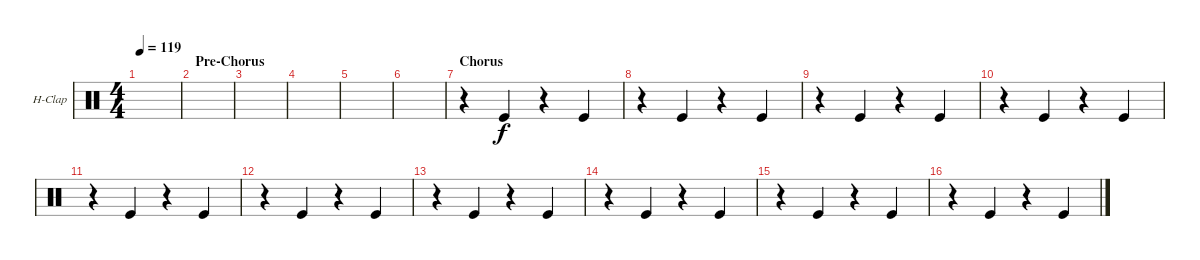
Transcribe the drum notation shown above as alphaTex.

\defaultSystemsLayout 4
\bracketExtendMode groupsimilarinstruments
\firstSystemTrackNameOrientation horizontal
\otherSystemsTrackNameOrientation horizontal
\track ("Hand Clap" "H-Clap") {instrument percussion}
\staff {score}
\articulation defaults
\ts (4 4)
\tempo 119
\clef neutral
\scale
0.333333
\ks c
|
\section ("" "Pre-Chorus")
\scale
0.333333 |
\scale
0.333333 |
\scale
0.333333 |
\scale
0.333333 |
\scale
0.333333 |
\section ("" "Chorus")
\scale
0.333333 r.4 "Kick (hit)".4 r.4 "Kick (hit)".4 |
\scale
0.333333 r.4 "Kick (hit)".4 r.4 "Kick (hit)".4 |
\scale
0.333333 r.4 "Kick (hit)".4 r.4 "Kick (hit)".4 |
\scale
0.333333 r.4 "Kick (hit)".4 r.4 "Kick (hit)".4 |
\scale
0.333333 r.4 "Kick (hit)".4 r.4 "Kick (hit)".4 |
\scale
0.333333 r.4 "Kick (hit)".4 r.4 "Kick (hit)".4 |
\scale
0.333333 r.4 "Kick (hit)".4 r.4 "Kick (hit)".4 |
\scale
0.333333 r.4 "Kick (hit)".4 r.4 "Kick (hit)".4 |
\scale
0.333333 r.4 "Kick (hit)".4 r.4 "Kick (hit)".4 |
\scale
0.333333 r.4 "Kick (hit)".4 r.4 "Kick (hit)".4
